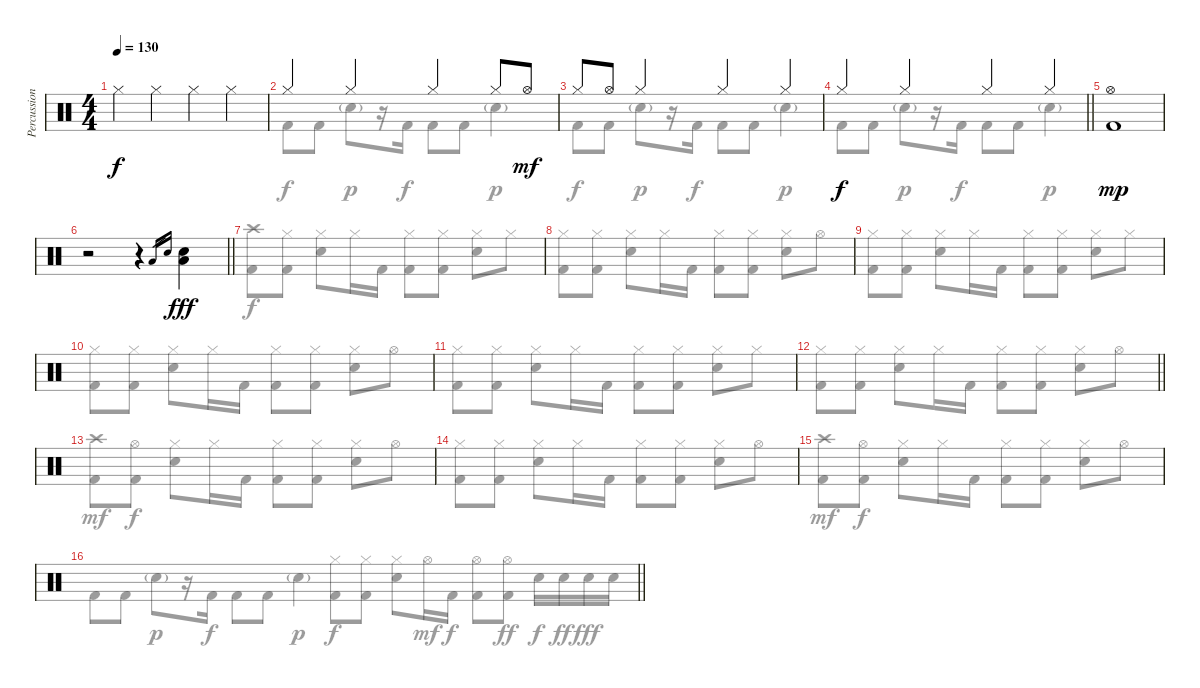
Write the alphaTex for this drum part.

\track ("Percussion" "Percussion") {instrument percussion}
\staff {score}
\articulation defaults
\voice
\ts (4 4)
\tempo 130
\clef neutral
\ks c "Hi-Hat (closed)".4{dy f} "Hi-Hat (closed)".4 "Hi-Hat (closed)".4 "Hi-Hat (closed)".4
|
"Hi-Hat (closed)".4 "Hi-Hat (closed)".4 "Hi-Hat (closed)".4 "Hi-Hat (closed)".8 "Hi-Hat (open)".8{dy mf} |
"Hi-Hat (closed)".8 "Hi-Hat (open)".8 "Hi-Hat (closed)".4 "Hi-Hat (closed)".4 "Hi-Hat (closed)".4 |
\barLineRight lightlight "Hi-Hat (closed)".4{dy f} "Hi-Hat (closed)".4 "Hi-Hat (closed)".4 "Hi-Hat (closed)".4
|
("Hi-Hat (open)" "Kick (hit) 2").1{dy mp} |
\barLineRight lightlight
r.2 r.4 "Low Floor Tom (hit)".16{gr} "Electric Snare (hit)".16{gr} ("Low Floor Tom (hit)" "Electric Snare (hit)").4{dy fff} |
|
|
|
|
|
\barLineRight lightlight
|
|
|
|
\barLineRight lightlight
\voice
\clef neutral
\ottava regular
\simile none
\ks c "Kick (hit) 2".8{dy f} "Kick (hit) 2".8 "Electric Snare (hit)"{g}.8{dy p}
r.16 "Kick (hit) 2".16{dy f} "Kick (hit) 2".8 "Kick (hit) 2".8 "Electric Snare (hit)"{g}.4{dy p} |
"Kick (hit) 2".8{dy f} "Kick (hit) 2".8 "Electric Snare (hit)"{g}.8{dy p} r.16 "Kick (hit) 2".16{dy f} "Kick (hit) 2".8 "Kick (hit) 2".8 "Electric Snare (hit)"{g}.4{dy p} |
"Kick (hit) 2".8{dy f} "Kick (hit) 2".8 "Electric Snare (hit)"{g}.8{dy p} r.16 "Kick (hit) 2".16{dy f} "Kick (hit) 2".8 "Kick (hit) 2".8 "Electric Snare (hit)"{g}.4{dy p} |
\barLineRight lightlight "Kick (hit) 2".8{dy f} "Kick (hit) 2".8 "Electric Snare (hit)"{g}.8{dy p}
r.16 "Kick (hit) 2".16{dy f} "Kick (hit) 2".8 "Kick (hit) 2".8 "Electric Snare (hit)"{g}.4{dy p} |
|
\barLineRight lightlight
|
("Crash high (hit)" "Kick (hit) 2").8{dy f} ("Hi-Hat (closed)" "Kick (hit) 2").8 ("Hi-Hat (closed)" "Electric Snare (hit)").8 "Hi-Hat (closed)".16 "Kick (hit) 2".16 ("Hi-Hat (closed)" "Kick (hit) 2").8 ("Hi-Hat (closed)" "Kick (hit) 2").8 ("Hi-Hat (closed)" "Electric Snare (hit)").8 "Hi-Hat (closed)".8 |
("Hi-Hat (closed)" "Kick (hit) 2").8 ("Hi-Hat (closed)" "Kick (hit) 2").8 ("Hi-Hat (closed)" "Electric Snare (hit)").8 "Hi-Hat (closed)".16 "Kick (hit) 2".16 ("Hi-Hat (closed)" "Kick (hit) 2").8 ("Hi-Hat (closed)" "Kick (hit) 2").8 ("Hi-Hat (closed)" "Electric Snare (hit)").8 "Hi-Hat (open)".8 |
("Hi-Hat (closed)" "Kick (hit) 2").8 ("Hi-Hat (closed)" "Kick (hit) 2").8 ("Hi-Hat (closed)" "Electric Snare (hit)").8 "Hi-Hat (closed)".16 "Kick (hit) 2".16 ("Hi-Hat (closed)" "Kick (hit) 2").8 ("Hi-Hat (closed)" "Kick (hit) 2").8 ("Hi-Hat (closed)" "Electric Snare (hit)").8 "Hi-Hat (closed)".8 |
("Hi-Hat (closed)" "Kick (hit) 2").8 ("Hi-Hat (closed)" "Kick (hit) 2").8 ("Hi-Hat (closed)" "Electric Snare (hit)").8 "Hi-Hat (closed)".16 "Kick (hit) 2".16 ("Hi-Hat (closed)" "Kick (hit) 2").8 ("Hi-Hat (closed)" "Kick (hit) 2").8 ("Hi-Hat (closed)" "Electric Snare (hit)").8 "Hi-Hat (open)".8 |
("Hi-Hat (closed)" "Kick (hit) 2").8 ("Hi-Hat (closed)" "Kick (hit) 2").8 ("Hi-Hat (closed)" "Electric Snare (hit)").8 "Hi-Hat (closed)".16 "Kick (hit) 2".16 ("Hi-Hat (closed)" "Kick (hit) 2").8 ("Hi-Hat (closed)" "Kick (hit) 2").8 ("Hi-Hat (closed)" "Electric Snare (hit)").8 "Hi-Hat (closed)".8 |
\barLineRight lightlight
("Hi-Hat (closed)" "Kick (hit) 2").8 ("Hi-Hat (closed)" "Kick (hit) 2").8 ("Hi-Hat (closed)" "Electric Snare (hit)").8 "Hi-Hat (closed)".16 "Kick (hit) 2".16 ("Hi-Hat (closed)" "Kick (hit) 2").8 ("Hi-Hat (closed)" "Kick (hit) 2").8 ("Hi-Hat (closed)" "Electric Snare (hit)").8 "Hi-Hat (open)".8 |
("Crash high (hit)" "Kick (hit) 2").8{dy mf} ("Hi-Hat (open)" "Kick (hit) 2").8{dy f} ("Hi-Hat (closed)" "Electric Snare (hit)").8 "Hi-Hat (closed)".16 "Kick (hit) 2".16 ("Hi-Hat (closed)" "Kick (hit) 2").8 ("Hi-Hat (closed)" "Kick (hit) 2").8 ("Hi-Hat (closed)" "Electric Snare (hit)").8 "Hi-Hat (open)".8 |
("Hi-Hat (closed)" "Kick (hit) 2").8 ("Hi-Hat (closed)" "Kick (hit) 2").8 ("Hi-Hat (closed)" "Electric Snare (hit)").8 "Hi-Hat (closed)".16 "Kick (hit) 2".16 ("Hi-Hat (closed)" "Kick (hit) 2").8 ("Hi-Hat (closed)" "Kick (hit) 2").8 ("Hi-Hat (closed)" "Electric Snare (hit)").8 "Hi-Hat (open)".8 |
("Crash high (hit)" "Kick (hit) 2").8{dy mf} ("Hi-Hat (open)" "Kick (hit) 2").8{dy f} ("Hi-Hat (closed)" "Electric Snare (hit)").8 "Hi-Hat (closed)".16 "Kick (hit) 2".16 ("Hi-Hat (closed)" "Kick (hit) 2").8 ("Hi-Hat (closed)" "Kick (hit) 2").8 ("Hi-Hat (closed)" "Electric Snare (hit)").8 "Hi-Hat (open)".8 |
\barLineRight lightlight
("Hi-Hat (closed)" "Kick (hit) 2").8 ("Hi-Hat (closed)" "Kick (hit) 2").8 ("Hi-Hat (closed)" "Electric Snare (hit)").8 "Hi-Hat (open)".16{dy mf} "Kick (hit) 2".16{dy f} ("Hi-Hat (open)" "Kick (hit) 2").8 ("Hi-Hat (open)" "Kick (hit) 2").8{dy ff} "Electric Snare (hit)".16{dy f} "Electric Snare (hit)".16{dy ff} "Electric Snare (hit)".16{dy fff} "Electric Snare (hit)".16
